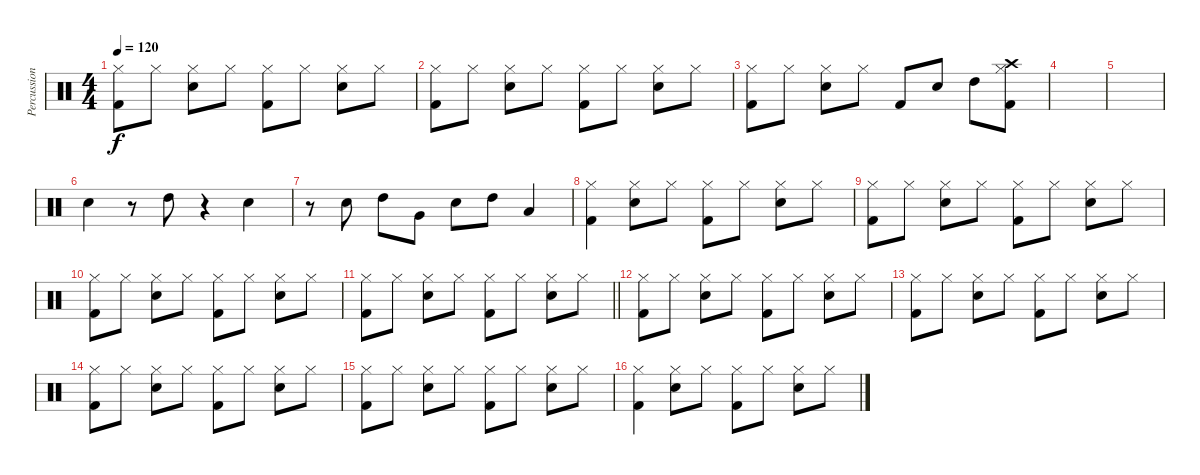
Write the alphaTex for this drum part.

\track ("Percussion" "Percussion") {instrument percussion}
\staff {score}
\articulation defaults
\ts (4 4)
\tempo 120
\clef neutral
\ks c
("Hi-Hat (closed)" "Kick (hit) 2").8{dy f} "Hi-Hat (closed)".8 ("Hi-Hat (closed)" "Snare (hit) 2").8 "Hi-Hat (closed)".8 ("Hi-Hat (closed)" "Kick (hit) 2").8 "Hi-Hat (closed)".8 ("Hi-Hat (closed)" "Snare (hit) 2").8 "Hi-Hat (closed)".8 |
("Hi-Hat (closed)" "Kick (hit) 2").8 "Hi-Hat (closed)".8 ("Hi-Hat (closed)" "Snare (hit) 2").8 "Hi-Hat (closed)".8 ("Hi-Hat (closed)" "Kick (hit) 2").8 "Hi-Hat (closed)".8 ("Hi-Hat (closed)" "Snare (hit) 2").8 "Hi-Hat (closed)".8 |
("Hi-Hat (closed)" "Kick (hit) 2").8 "Hi-Hat (closed)".8 ("Hi-Hat (closed)" "Snare (hit) 2").8 "Hi-Hat (closed)".8 "Kick (hit) 2".8 "Snare (hit) 2".8 "High Tom (hit)".8 ("Crash high (hit)" "Hi-Hat (closed)" "Kick (hit) 2").8 |
|
|
"Snare (hit) 2".4 r.8 "High Tom (hit)".8 r.4 "Snare (hit) 2".4 |
r.8 "Snare (hit) 2".8 "High Tom (hit)".8 "Very Low Tom (hit)".8 "Snare (hit) 2".8 "High Tom (hit)".8 "Low Tom (hit)".4 |
("Hi-Hat (closed)" "Kick (hit) 2").4 ("Hi-Hat (closed)" "Snare (hit) 2").8 "Hi-Hat (closed)".8 ("Hi-Hat (closed)" "Kick (hit) 2").8 "Hi-Hat (closed)".8 ("Hi-Hat (closed)" "Snare (hit) 2").8 "Hi-Hat (closed)".8 |
("Hi-Hat (closed)" "Kick (hit) 2").8 "Hi-Hat (closed)".8 ("Hi-Hat (closed)" "Snare (hit) 2").8 "Hi-Hat (closed)".8 ("Hi-Hat (closed)" "Kick (hit) 2").8 "Hi-Hat (closed)".8 ("Hi-Hat (closed)" "Snare (hit) 2").8 "Hi-Hat (closed)".8 |
("Hi-Hat (closed)" "Kick (hit) 2").8 "Hi-Hat (closed)".8 ("Hi-Hat (closed)" "Snare (hit) 2").8 "Hi-Hat (closed)".8 ("Hi-Hat (closed)" "Kick (hit) 2").8 "Hi-Hat (closed)".8 ("Hi-Hat (closed)" "Snare (hit) 2").8 "Hi-Hat (closed)".8 |
\barLineRight lightlight
("Hi-Hat (closed)" "Kick (hit) 2").8 "Hi-Hat (closed)".8 ("Hi-Hat (closed)" "Snare (hit) 2").8 "Hi-Hat (closed)".8 ("Hi-Hat (closed)" "Kick (hit) 2").8 "Hi-Hat (closed)".8 ("Hi-Hat (closed)" "Snare (hit) 2").8 "Hi-Hat (closed)".8 |
("Hi-Hat (closed)" "Kick (hit) 2").8 "Hi-Hat (closed)".8 ("Hi-Hat (closed)" "Snare (hit) 2").8 "Hi-Hat (closed)".8 ("Hi-Hat (closed)" "Kick (hit) 2").8 "Hi-Hat (closed)".8 ("Hi-Hat (closed)" "Snare (hit) 2").8 "Hi-Hat (closed)".8 |
("Hi-Hat (closed)" "Kick (hit) 2").8 "Hi-Hat (closed)".8 ("Hi-Hat (closed)" "Snare (hit) 2").8 "Hi-Hat (closed)".8 ("Hi-Hat (closed)" "Kick (hit) 2").8 "Hi-Hat (closed)".8 ("Hi-Hat (closed)" "Snare (hit) 2").8 "Hi-Hat (closed)".8 |
("Hi-Hat (closed)" "Kick (hit) 2").8 "Hi-Hat (closed)".8 ("Hi-Hat (closed)" "Snare (hit) 2").8 "Hi-Hat (closed)".8 ("Hi-Hat (closed)" "Kick (hit) 2").8 "Hi-Hat (closed)".8 ("Hi-Hat (closed)" "Snare (hit) 2").8 "Hi-Hat (closed)".8 |
("Hi-Hat (closed)" "Kick (hit) 2").8 "Hi-Hat (closed)".8 ("Hi-Hat (closed)" "Snare (hit) 2").8 "Hi-Hat (closed)".8 ("Hi-Hat (closed)" "Kick (hit) 2").8 "Hi-Hat (closed)".8 ("Hi-Hat (closed)" "Snare (hit) 2").8 "Hi-Hat (closed)".8 |
("Hi-Hat (closed)" "Kick (hit) 2").4 ("Hi-Hat (closed)" "Snare (hit) 2").8 "Hi-Hat (closed)".8 ("Hi-Hat (closed)" "Kick (hit) 2").8 "Hi-Hat (closed)".8 ("Hi-Hat (closed)" "Snare (hit) 2").8 "Hi-Hat (closed)".8
